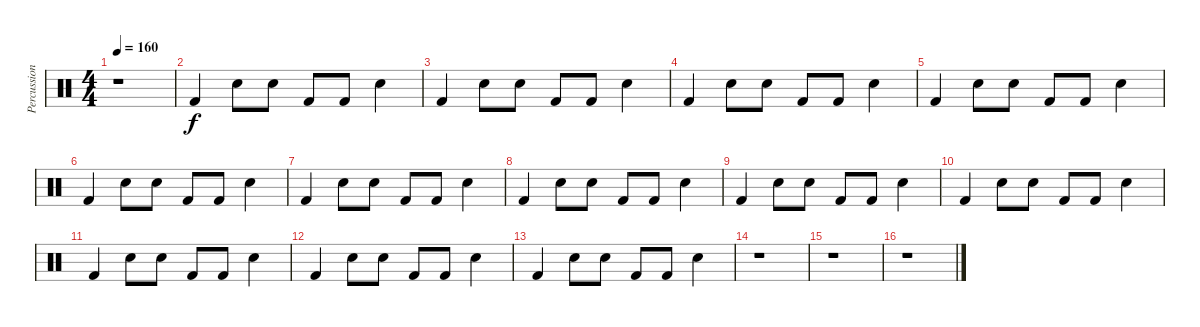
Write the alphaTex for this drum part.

\track ("Percussion" "Percussion") {instrument percussion}
\staff {score}
\articulation defaults
\ts (4 4)
\tempo 160
\clef neutral
\ks c
r.1{dy f} |
"Kick (hit) 2".4 "Snare (hit) 2".8 "Snare (hit) 2".8 "Kick (hit) 2".8 "Kick (hit) 2".8 "Snare (hit) 2".4 |
"Kick (hit) 2".4 "Snare (hit) 2".8 "Snare (hit) 2".8 "Kick (hit) 2".8 "Kick (hit) 2".8 "Snare (hit) 2".4 |
"Kick (hit) 2".4 "Snare (hit) 2".8 "Snare (hit) 2".8 "Kick (hit) 2".8 "Kick (hit) 2".8 "Snare (hit) 2".4 |
"Kick (hit) 2".4 "Snare (hit) 2".8 "Snare (hit) 2".8 "Kick (hit) 2".8 "Kick (hit) 2".8 "Snare (hit) 2".4 |
"Kick (hit) 2".4 "Snare (hit) 2".8 "Snare (hit) 2".8 "Kick (hit) 2".8 "Kick (hit) 2".8 "Snare (hit) 2".4 |
"Kick (hit) 2".4 "Snare (hit) 2".8 "Snare (hit) 2".8 "Kick (hit) 2".8 "Kick (hit) 2".8 "Snare (hit) 2".4 |
"Kick (hit) 2".4 "Snare (hit) 2".8 "Snare (hit) 2".8 "Kick (hit) 2".8 "Kick (hit) 2".8 "Snare (hit) 2".4 |
"Kick (hit) 2".4 "Snare (hit) 2".8 "Snare (hit) 2".8 "Kick (hit) 2".8 "Kick (hit) 2".8 "Snare (hit) 2".4 |
"Kick (hit) 2".4 "Snare (hit) 2".8 "Snare (hit) 2".8 "Kick (hit) 2".8 "Kick (hit) 2".8 "Snare (hit) 2".4 |
"Kick (hit) 2".4 "Snare (hit) 2".8 "Snare (hit) 2".8 "Kick (hit) 2".8 "Kick (hit) 2".8 "Snare (hit) 2".4 |
"Kick (hit) 2".4 "Snare (hit) 2".8 "Snare (hit) 2".8 "Kick (hit) 2".8 "Kick (hit) 2".8 "Snare (hit) 2".4 |
"Kick (hit) 2".4 "Snare (hit) 2".8 "Snare (hit) 2".8 "Kick (hit) 2".8 "Kick (hit) 2".8 "Snare (hit) 2".4 |
r.1 |
r.1 |
r.1
